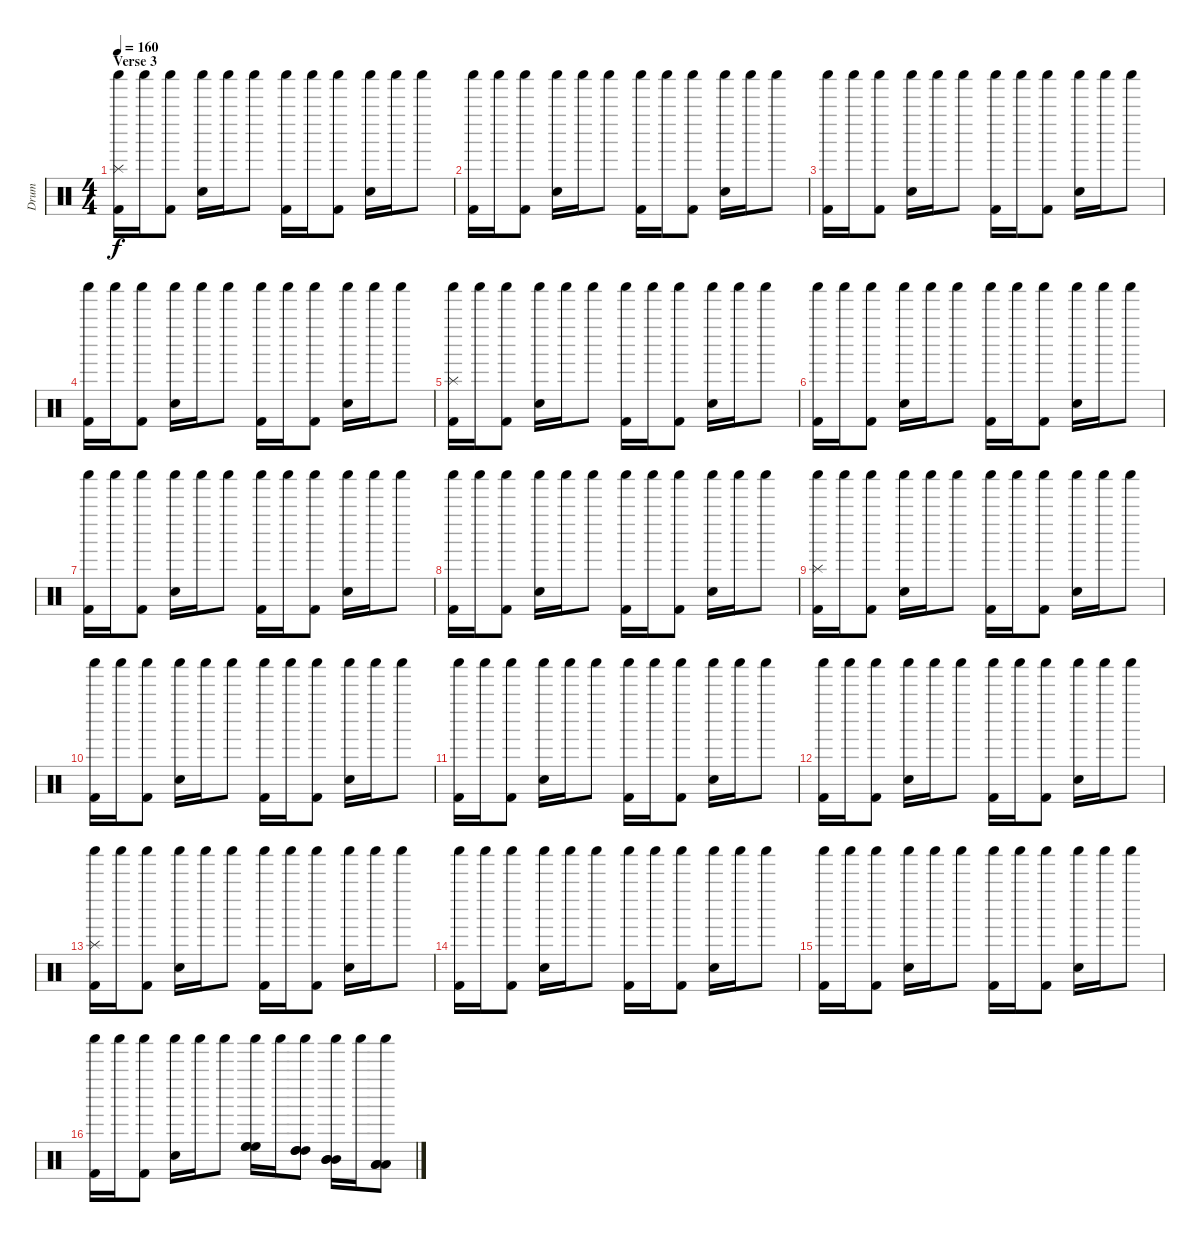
\track ("Drum" "Drum") {instrument percussion}
\staff {score}
\articulation defaults
\ts (4 4)
\section ("" "Verse 3")
\tempo 160
\clef neutral
\ks c
("Splash (hit)" "Shaker (hit)" "Kick (hit) 2").16{dy f} "Shaker (hit)".16 ("Shaker (hit)" "Kick (hit) 2").8 ("Shaker (hit)" "Snare (hit) 2").16 "Shaker (hit)".16 "Shaker (hit)".8 ("Shaker (hit)" "Kick (hit) 2").16 "Shaker (hit)".16 ("Shaker (hit)" "Kick (hit) 2").8 ("Shaker (hit)" "Snare (hit) 2").16 "Shaker (hit)".16 "Shaker (hit)".8 |
("Shaker (hit)" "Kick (hit) 2").16 "Shaker (hit)".16 ("Shaker (hit)" "Kick (hit) 2").8 ("Shaker (hit)" "Snare (hit) 2").16 "Shaker (hit)".16 "Shaker (hit)".8 ("Shaker (hit)" "Kick (hit) 2").16 "Shaker (hit)".16 ("Shaker (hit)" "Kick (hit) 2").8 ("Shaker (hit)" "Snare (hit) 2").16 "Shaker (hit)".16 "Shaker (hit)".8 |
("Shaker (hit)" "Kick (hit) 2").16 "Shaker (hit)".16 ("Shaker (hit)" "Kick (hit) 2").8 ("Shaker (hit)" "Snare (hit) 2").16 "Shaker (hit)".16 "Shaker (hit)".8 ("Shaker (hit)" "Kick (hit) 2").16 "Shaker (hit)".16 ("Shaker (hit)" "Kick (hit) 2").8 ("Shaker (hit)" "Snare (hit) 2").16 "Shaker (hit)".16 "Shaker (hit)".8 |
("Shaker (hit)" "Kick (hit) 2").16 "Shaker (hit)".16 ("Shaker (hit)" "Kick (hit) 2").8 ("Shaker (hit)" "Snare (hit) 2").16 "Shaker (hit)".16 "Shaker (hit)".8 ("Shaker (hit)" "Kick (hit) 2").16 "Shaker (hit)".16 ("Shaker (hit)" "Kick (hit) 2").8 ("Shaker (hit)" "Snare (hit) 2").16 "Shaker (hit)".16 "Shaker (hit)".8 |
("Splash (hit)" "Shaker (hit)" "Kick (hit) 2").16 "Shaker (hit)".16 ("Shaker (hit)" "Kick (hit) 2").8 ("Shaker (hit)" "Snare (hit) 2").16 "Shaker (hit)".16 "Shaker (hit)".8 ("Shaker (hit)" "Kick (hit) 2").16 "Shaker (hit)".16 ("Shaker (hit)" "Kick (hit) 2").8 ("Shaker (hit)" "Snare (hit) 2").16 "Shaker (hit)".16 "Shaker (hit)".8 |
("Shaker (hit)" "Kick (hit) 2").16 "Shaker (hit)".16 ("Shaker (hit)" "Kick (hit) 2").8 ("Shaker (hit)" "Snare (hit) 2").16 "Shaker (hit)".16 "Shaker (hit)".8 ("Shaker (hit)" "Kick (hit) 2").16 "Shaker (hit)".16 ("Shaker (hit)" "Kick (hit) 2").8 ("Shaker (hit)" "Snare (hit) 2").16 "Shaker (hit)".16 "Shaker (hit)".8 |
("Shaker (hit)" "Kick (hit) 2").16 "Shaker (hit)".16 ("Shaker (hit)" "Kick (hit) 2").8 ("Shaker (hit)" "Snare (hit) 2").16 "Shaker (hit)".16 "Shaker (hit)".8 ("Shaker (hit)" "Kick (hit) 2").16 "Shaker (hit)".16 ("Shaker (hit)" "Kick (hit) 2").8 ("Shaker (hit)" "Snare (hit) 2").16 "Shaker (hit)".16 "Shaker (hit)".8 |
("Shaker (hit)" "Kick (hit) 2").16 "Shaker (hit)".16 ("Shaker (hit)" "Kick (hit) 2").8 ("Shaker (hit)" "Snare (hit) 2").16 "Shaker (hit)".16 "Shaker (hit)".8 ("Shaker (hit)" "Kick (hit) 2").16 "Shaker (hit)".16 ("Shaker (hit)" "Kick (hit) 2").8 ("Shaker (hit)" "Snare (hit) 2").16 "Shaker (hit)".16 "Shaker (hit)".8 |
("Splash (hit)" "Shaker (hit)" "Kick (hit) 2").16 "Shaker (hit)".16 ("Shaker (hit)" "Kick (hit) 2").8 ("Shaker (hit)" "Snare (hit) 2").16 "Shaker (hit)".16 "Shaker (hit)".8 ("Shaker (hit)" "Kick (hit) 2").16 "Shaker (hit)".16 ("Shaker (hit)" "Kick (hit) 2").8 ("Shaker (hit)" "Snare (hit) 2").16 "Shaker (hit)".16 "Shaker (hit)".8 |
("Shaker (hit)" "Kick (hit) 2").16 "Shaker (hit)".16 ("Shaker (hit)" "Kick (hit) 2").8 ("Shaker (hit)" "Snare (hit) 2").16 "Shaker (hit)".16 "Shaker (hit)".8 ("Shaker (hit)" "Kick (hit) 2").16 "Shaker (hit)".16 ("Shaker (hit)" "Kick (hit) 2").8 ("Shaker (hit)" "Snare (hit) 2").16 "Shaker (hit)".16 "Shaker (hit)".8 |
("Shaker (hit)" "Kick (hit) 2").16 "Shaker (hit)".16 ("Shaker (hit)" "Kick (hit) 2").8 ("Shaker (hit)" "Snare (hit) 2").16 "Shaker (hit)".16 "Shaker (hit)".8 ("Shaker (hit)" "Kick (hit) 2").16 "Shaker (hit)".16 ("Shaker (hit)" "Kick (hit) 2").8 ("Shaker (hit)" "Snare (hit) 2").16 "Shaker (hit)".16 "Shaker (hit)".8 |
("Shaker (hit)" "Kick (hit) 2").16 "Shaker (hit)".16 ("Shaker (hit)" "Kick (hit) 2").8 ("Shaker (hit)" "Snare (hit) 2").16 "Shaker (hit)".16 "Shaker (hit)".8 ("Shaker (hit)" "Kick (hit) 2").16 "Shaker (hit)".16 ("Shaker (hit)" "Kick (hit) 2").8 ("Shaker (hit)" "Snare (hit) 2").16 "Shaker (hit)".16 "Shaker (hit)".8 |
("Splash (hit)" "Shaker (hit)" "Kick (hit) 2").16 "Shaker (hit)".16 ("Shaker (hit)" "Kick (hit) 2").8 ("Shaker (hit)" "Snare (hit) 2").16 "Shaker (hit)".16 "Shaker (hit)".8 ("Shaker (hit)" "Kick (hit) 2").16 "Shaker (hit)".16 ("Shaker (hit)" "Kick (hit) 2").8 ("Shaker (hit)" "Snare (hit) 2").16 "Shaker (hit)".16 "Shaker (hit)".8 |
("Shaker (hit)" "Kick (hit) 2").16 "Shaker (hit)".16 ("Shaker (hit)" "Kick (hit) 2").8 ("Shaker (hit)" "Snare (hit) 2").16 "Shaker (hit)".16 "Shaker (hit)".8 ("Shaker (hit)" "Kick (hit) 2").16 "Shaker (hit)".16 ("Shaker (hit)" "Kick (hit) 2").8 ("Shaker (hit)" "Snare (hit) 2").16 "Shaker (hit)".16 "Shaker (hit)".8 |
("Shaker (hit)" "Kick (hit) 2").16 "Shaker (hit)".16 ("Shaker (hit)" "Kick (hit) 2").8 ("Shaker (hit)" "Snare (hit) 2").16 "Shaker (hit)".16 "Shaker (hit)".8 ("Shaker (hit)" "Kick (hit) 2").16 "Shaker (hit)".16 ("Shaker (hit)" "Kick (hit) 2").8 ("Shaker (hit)" "Snare (hit) 2").16 "Shaker (hit)".16 "Shaker (hit)".8 |
("Shaker (hit)" "Kick (hit) 2").16 "Shaker (hit)".16 ("Shaker (hit)" "Kick (hit) 2").8 ("Shaker (hit)" "Snare (hit) 2").16 "Shaker (hit)".16 "Shaker (hit)".8 ("High Floor Tom (hit)" "High Floor Tom (hit)" "High Floor Tom (hit)" "Shaker (hit)").16 "Shaker (hit)".16 ("High Tom (hit)" "High Tom (hit)" "High Tom (hit)" "Shaker (hit)").8 ("Mid Tom (hit)" "Mid Tom (hit)" "Mid Tom (hit)" "Shaker (hit)").16 "Shaker (hit)".16 ("Low Tom (hit)" "Low Tom (hit)" "Low Tom (hit)" "Shaker (hit)").8
